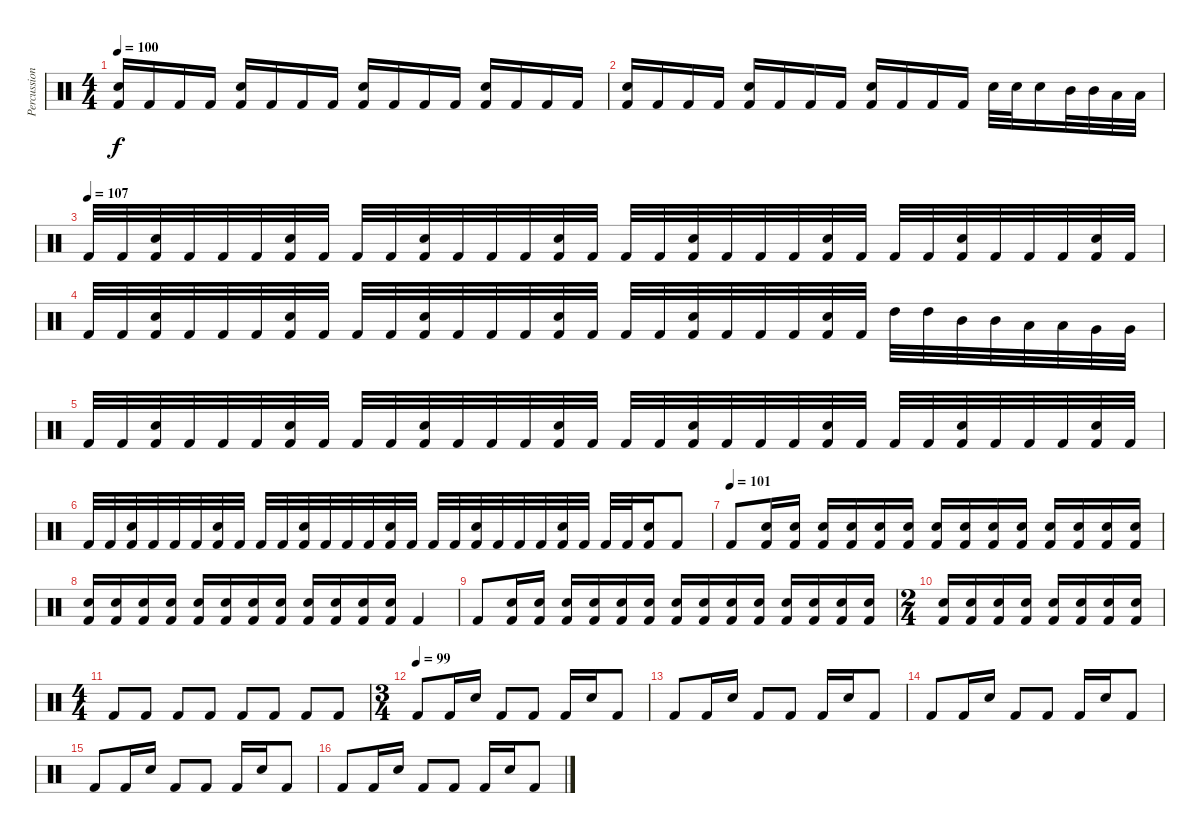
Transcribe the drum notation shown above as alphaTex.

\track ("Percussion" "Percussion") {instrument percussion}
\staff {score}
\articulation defaults
\ts (4 4)
\tempo 100
\clef neutral
\ks c
("Snare (hit) 2" "Kick (hit) 2").16{dy f} "Kick (hit) 2".16 "Kick (hit) 2".16 "Kick (hit) 2".16 ("Snare (hit) 2" "Kick (hit) 2").16 "Kick (hit) 2".16 "Kick (hit) 2".16 "Kick (hit) 2".16 ("Snare (hit) 2" "Kick (hit) 2").16 "Kick (hit) 2".16 "Kick (hit) 2".16 "Kick (hit) 2".16 ("Snare (hit) 2" "Kick (hit) 2").16 "Kick (hit) 2".16 "Kick (hit) 2".16 "Kick (hit) 2".16 |
("Snare (hit) 2" "Kick (hit) 2").16 "Kick (hit) 2".16 "Kick (hit) 2".16 "Kick (hit) 2".16 ("Snare (hit) 2" "Kick (hit) 2").16 "Kick (hit) 2".16 "Kick (hit) 2".16 "Kick (hit) 2".16 ("Snare (hit) 2" "Kick (hit) 2").16 "Kick (hit) 2".16 "Kick (hit) 2".16 "Kick (hit) 2".16 "Snare (hit) 2".32 "Snare (hit) 2".32 "Snare (hit) 2".16 "Mid Tom (hit)".32 "Mid Tom (hit)".32 "Low Tom (hit)".32 "Low Tom (hit)".32 |
\tempo (107)
"Kick (hit) 2".32 "Kick (hit) 2".32 ("Snare (hit) 2" "Kick (hit) 2").32 "Kick (hit) 2".32 "Kick (hit) 2".32 "Kick (hit) 2".32 ("Snare (hit) 2" "Kick (hit) 2").32 "Kick (hit) 2".32 "Kick (hit) 2".32 "Kick (hit) 2".32 ("Snare (hit) 2" "Kick (hit) 2").32 "Kick (hit) 2".32 "Kick (hit) 2".32 "Kick (hit) 2".32 ("Snare (hit) 2" "Kick (hit) 2").32 "Kick (hit) 2".32 "Kick (hit) 2".32 "Kick (hit) 2".32 ("Snare (hit) 2" "Kick (hit) 2").32 "Kick (hit) 2".32 "Kick (hit) 2".32 "Kick (hit) 2".32 ("Snare (hit) 2" "Kick (hit) 2").32 "Kick (hit) 2".32 "Kick (hit) 2".32 "Kick (hit) 2".32 ("Snare (hit) 2" "Kick (hit) 2").32 "Kick (hit) 2".32 "Kick (hit) 2".32 "Kick (hit) 2".32 ("Snare (hit) 2" "Kick (hit) 2").32 "Kick (hit) 2".32 |
"Kick (hit) 2".32 "Kick (hit) 2".32 ("Snare (hit) 2" "Kick (hit) 2").32 "Kick (hit) 2".32 "Kick (hit) 2".32 "Kick (hit) 2".32 ("Snare (hit) 2" "Kick (hit) 2").32 "Kick (hit) 2".32 "Kick (hit) 2".32 "Kick (hit) 2".32 ("Snare (hit) 2" "Kick (hit) 2").32 "Kick (hit) 2".32 "Kick (hit) 2".32 "Kick (hit) 2".32 ("Snare (hit) 2" "Kick (hit) 2").32 "Kick (hit) 2".32 "Kick (hit) 2".32 "Kick (hit) 2".32 ("Snare (hit) 2" "Kick (hit) 2").32 "Kick (hit) 2".32 "Kick (hit) 2".32 "Kick (hit) 2".32 ("Snare (hit) 2" "Kick (hit) 2").32 "Kick (hit) 2".32 "High Tom (hit)".32 "High Tom (hit)".32 "Mid Tom (hit)".32 "Mid Tom (hit)".32 "Low Tom (hit)".32 "Low Tom (hit)".32 "Very Low Tom (hit)".32 "Very Low Tom (hit)".32 |
"Kick (hit) 2".32 "Kick (hit) 2".32 ("Snare (hit) 2" "Kick (hit) 2").32 "Kick (hit) 2".32 "Kick (hit) 2".32 "Kick (hit) 2".32 ("Snare (hit) 2" "Kick (hit) 2").32 "Kick (hit) 2".32 "Kick (hit) 2".32 "Kick (hit) 2".32 ("Snare (hit) 2" "Kick (hit) 2").32 "Kick (hit) 2".32 "Kick (hit) 2".32 "Kick (hit) 2".32 ("Snare (hit) 2" "Kick (hit) 2").32 "Kick (hit) 2".32 "Kick (hit) 2".32 "Kick (hit) 2".32 ("Snare (hit) 2" "Kick (hit) 2").32 "Kick (hit) 2".32 "Kick (hit) 2".32 "Kick (hit) 2".32 ("Snare (hit) 2" "Kick (hit) 2").32 "Kick (hit) 2".32 "Kick (hit) 2".32 "Kick (hit) 2".32 ("Snare (hit) 2" "Kick (hit) 2").32 "Kick (hit) 2".32 "Kick (hit) 2".32 "Kick (hit) 2".32 ("Snare (hit) 2" "Kick (hit) 2").32 "Kick (hit) 2".32 |
"Kick (hit) 2".32 "Kick (hit) 2".32 ("Snare (hit) 2" "Kick (hit) 2").32 "Kick (hit) 2".32 "Kick (hit) 2".32 "Kick (hit) 2".32 ("Snare (hit) 2" "Kick (hit) 2").32 "Kick (hit) 2".32 "Kick (hit) 2".32 "Kick (hit) 2".32 ("Snare (hit) 2" "Kick (hit) 2").32 "Kick (hit) 2".32 "Kick (hit) 2".32 "Kick (hit) 2".32 ("Snare (hit) 2" "Kick (hit) 2").32 "Kick (hit) 2".32 "Kick (hit) 2".32 "Kick (hit) 2".32 ("Snare (hit) 2" "Kick (hit) 2").32 "Kick (hit) 2".32 "Kick (hit) 2".32 "Kick (hit) 2".32 ("Snare (hit) 2" "Kick (hit) 2").32 "Kick (hit) 2".32 "Kick (hit) 2".32 "Kick (hit) 2".32 ("Snare (hit) 2" "Kick (hit) 2").16 "Kick (hit) 2".8 |
\tempo (101)
"Kick (hit) 2".8 ("Snare (hit) 2" "Kick (hit) 2").16 ("Snare (hit) 2" "Kick (hit) 2").16 ("Snare (hit) 2" "Kick (hit) 2").16 ("Snare (hit) 2" "Kick (hit) 2").16 ("Snare (hit) 2" "Kick (hit) 2").16 ("Snare (hit) 2" "Kick (hit) 2").16 ("Snare (hit) 2" "Kick (hit) 2").16 ("Snare (hit) 2" "Kick (hit) 2").16 ("Snare (hit) 2" "Kick (hit) 2").16 ("Snare (hit) 2" "Kick (hit) 2").16 ("Snare (hit) 2" "Kick (hit) 2").16 ("Snare (hit) 2" "Kick (hit) 2").16 ("Snare (hit) 2" "Kick (hit) 2").16 ("Snare (hit) 2" "Kick (hit) 2").16 |
("Snare (hit) 2" "Kick (hit) 2").16 ("Snare (hit) 2" "Kick (hit) 2").16 ("Snare (hit) 2" "Kick (hit) 2").16 ("Snare (hit) 2" "Kick (hit) 2").16 ("Snare (hit) 2" "Kick (hit) 2").16 ("Snare (hit) 2" "Kick (hit) 2").16 ("Snare (hit) 2" "Kick (hit) 2").16 ("Snare (hit) 2" "Kick (hit) 2").16 ("Snare (hit) 2" "Kick (hit) 2").16 ("Snare (hit) 2" "Kick (hit) 2").16 ("Snare (hit) 2" "Kick (hit) 2").16 ("Snare (hit) 2" "Kick (hit) 2").16 "Kick (hit) 2".4 |
"Kick (hit) 2".8 ("Snare (hit) 2" "Kick (hit) 2").16 ("Snare (hit) 2" "Kick (hit) 2").16 ("Snare (hit) 2" "Kick (hit) 2").16 ("Snare (hit) 2" "Kick (hit) 2").16 ("Snare (hit) 2" "Kick (hit) 2").16 ("Snare (hit) 2" "Kick (hit) 2").16 ("Snare (hit) 2" "Kick (hit) 2").16 ("Snare (hit) 2" "Kick (hit) 2").16 ("Snare (hit) 2" "Kick (hit) 2").16 ("Snare (hit) 2" "Kick (hit) 2").16 ("Snare (hit) 2" "Kick (hit) 2").16 ("Snare (hit) 2" "Kick (hit) 2").16 ("Snare (hit) 2" "Kick (hit) 2").16 ("Snare (hit) 2" "Kick (hit) 2").16 |
\ts (2 4)
("Snare (hit) 2" "Kick (hit) 2").16 ("Snare (hit) 2" "Kick (hit) 2").16 ("Snare (hit) 2" "Kick (hit) 2").16 ("Snare (hit) 2" "Kick (hit) 2").16 ("Snare (hit) 2" "Kick (hit) 2").16 ("Snare (hit) 2" "Kick (hit) 2").16 ("Snare (hit) 2" "Kick (hit) 2").16 ("Snare (hit) 2" "Kick (hit) 2").16 |
\ts (4 4)
"Kick (hit) 2".8 "Kick (hit) 2".8 "Kick (hit) 2".8 "Kick (hit) 2".8 "Kick (hit) 2".8 "Kick (hit) 2".8 "Kick (hit) 2".8 "Kick (hit) 2".8 |
\ts (3 4)
\tempo (99)
"Kick (hit) 2".8 "Kick (hit) 2".16 "Snare (hit) 2".16 "Kick (hit) 2".8 "Kick (hit) 2".8 "Kick (hit) 2".16 "Snare (hit) 2".16 "Kick (hit) 2".8 |
"Kick (hit) 2".8 "Kick (hit) 2".16 "Snare (hit) 2".16 "Kick (hit) 2".8 "Kick (hit) 2".8 "Kick (hit) 2".16 "Snare (hit) 2".16 "Kick (hit) 2".8 |
"Kick (hit) 2".8 "Kick (hit) 2".16 "Snare (hit) 2".16 "Kick (hit) 2".8 "Kick (hit) 2".8 "Kick (hit) 2".16 "Snare (hit) 2".16 "Kick (hit) 2".8 |
"Kick (hit) 2".8 "Kick (hit) 2".16 "Snare (hit) 2".16 "Kick (hit) 2".8 "Kick (hit) 2".8 "Kick (hit) 2".16 "Snare (hit) 2".16 "Kick (hit) 2".8 |
"Kick (hit) 2".8 "Kick (hit) 2".16 "Snare (hit) 2".16 "Kick (hit) 2".8 "Kick (hit) 2".8 "Kick (hit) 2".16 "Snare (hit) 2".16 "Kick (hit) 2".8
